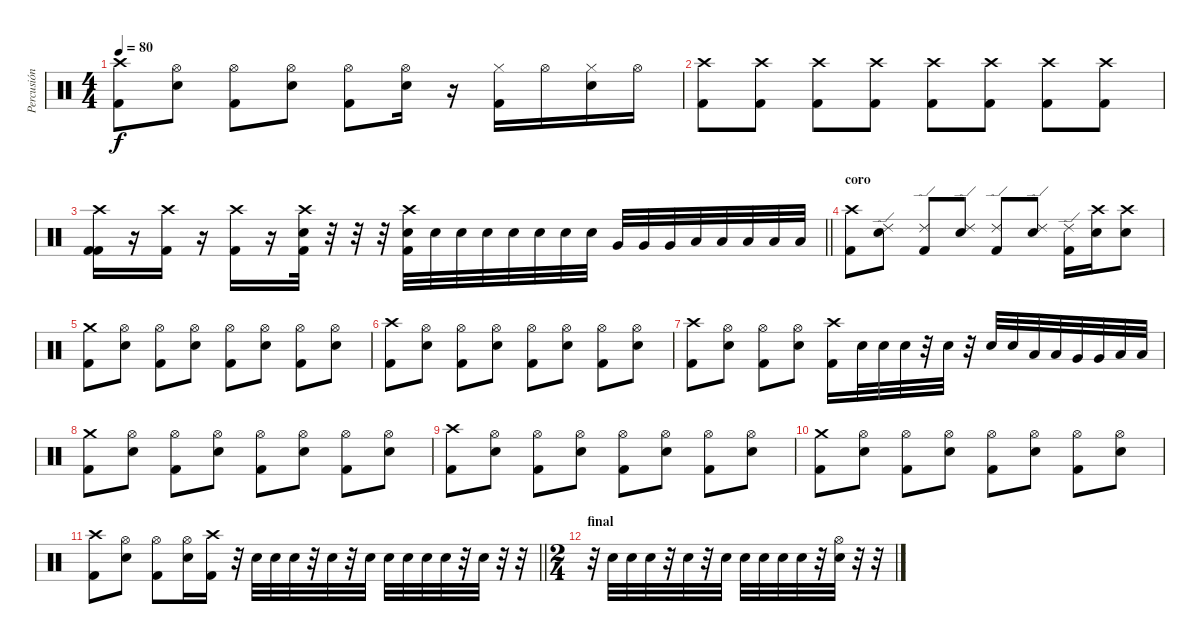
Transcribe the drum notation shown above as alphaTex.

\track ("Percusión" "Percusión") {instrument percussion}
\staff {score}
\articulation defaults
\ts (4 4)
\tempo 80
\clef neutral
\ks c
("Crash high (hit)" "Kick (hit) 2").8{dy f} ("Hi-Hat (open)" "Electric Snare (hit)").8 ("Hi-Hat (open)" "Kick (hit) 2").8 ("Hi-Hat (open)" "Electric Snare (hit)").8 ("Hi-Hat (open)" "Kick (hit) 2").8 ("Hi-Hat (open)" "Electric Snare (hit)").16 r.16 ("Hi-Hat (closed)" "Kick (hit) 2").16 "Hi-Hat (open)".16 ("Hi-Hat (closed)" "Electric Snare (hit)").16 "Hi-Hat (open)".16 |
("Crash high (hit)" "Kick (hit) 2").8 ("Crash high (hit)" "Kick (hit) 2").8 ("Crash high (hit)" "Kick (hit) 2").8 ("Crash high (hit)" "Kick (hit) 2").8 ("Crash high (hit)" "Kick (hit) 2").8 ("Crash high (hit)" "Kick (hit) 2").8 ("Crash high (hit)" "Kick (hit) 2").8 ("Crash high (hit)" "Kick (hit) 2").8 |
\barLineRight lightlight
("Crash high (hit)" "Kick (hit) 2" "Kick (hit) 2").16 r.16 ("Crash high (hit)" "Kick (hit) 2").16 r.16 ("Crash high (hit)" "Kick (hit) 2").16 r.16 ("Crash high (hit)" "Electric Snare (hit)" "Kick (hit) 2").32 r.32 r.32 r.32 ("Crash high (hit)" "Electric Snare (hit)" "Kick (hit) 2").32 "Electric Snare (hit)".32 "Electric Snare (hit)".32 "Electric Snare (hit)".32 "Electric Snare (hit)".32 "Electric Snare (hit)".32 "Electric Snare (hit)".32 "Electric Snare (hit)".32 "Very Low Tom (hit)".32 "Very Low Tom (hit)".32 "Very Low Tom (hit)".32 "Low Floor Tom (hit)".32 "Low Floor Tom (hit)".32 "Low Floor Tom (hit)".32 "Low Floor Tom (hit)".32 "Low Floor Tom (hit)".32 |
\section ("" "coro")
("Crash high (hit)" "Kick (hit) 2").8 ("Ride (edge) 2" "Electric Snare (hit)").8 ("Ride (edge) 2" "Kick (hit) 2").8 ("Ride (edge) 2" "Electric Snare (hit)").8 ("Ride (edge) 2" "Kick (hit) 2").8 ("Ride (edge) 2" "Electric Snare (hit)").8 ("Ride (edge) 2" "Kick (hit) 2").16 ("Crash high (hit)" "Electric Snare (hit)").16 ("Crash high (hit)" "Electric Snare (hit)").8 |
("Crash medium (hit)" "Kick (hit) 2").8 ("Hi-Hat (open)" "Electric Snare (hit)").8 ("Hi-Hat (open)" "Kick (hit) 2").8 ("Hi-Hat (open)" "Electric Snare (hit)").8 ("Hi-Hat (open)" "Kick (hit) 2").8 ("Hi-Hat (open)" "Electric Snare (hit)").8 ("Hi-Hat (open)" "Kick (hit) 2").8 ("Hi-Hat (open)" "Electric Snare (hit)").8 |
("Crash high (hit)" "Kick (hit) 2").8 ("Hi-Hat (open)" "Electric Snare (hit)").8 ("Hi-Hat (open)" "Kick (hit) 2").8 ("Hi-Hat (open)" "Electric Snare (hit)").8 ("Hi-Hat (open)" "Kick (hit) 2").8 ("Hi-Hat (open)" "Electric Snare (hit)").8 ("Hi-Hat (open)" "Kick (hit) 2").8 ("Hi-Hat (open)" "Electric Snare (hit)").8 |
("Crash high (hit)" "Kick (hit) 2").8 ("Hi-Hat (open)" "Electric Snare (hit)").8 ("Hi-Hat (open)" "Kick (hit) 2").8 ("Hi-Hat (open)" "Electric Snare (hit)").8 ("Crash high (hit)" "Kick (hit) 2").16 "Electric Snare (hit)".32 "Electric Snare (hit)".32 "Electric Snare (hit)".32 r.32 "Electric Snare (hit)".32 r.32 "Electric Snare (hit)".32 "Electric Snare (hit)".32 "Low Tom (hit)".32 "Low Tom (hit)".32 "Very Low Tom (hit)".32 "Very Low Tom (hit)".32 "Low Floor Tom (hit)".32 "Low Floor Tom (hit)".32 |
("Crash medium (hit)" "Kick (hit) 2").8 ("Hi-Hat (open)" "Electric Snare (hit)").8 ("Hi-Hat (open)" "Kick (hit) 2").8 ("Hi-Hat (open)" "Electric Snare (hit)").8 ("Hi-Hat (open)" "Kick (hit) 2").8 ("Hi-Hat (open)" "Electric Snare (hit)").8 ("Hi-Hat (open)" "Kick (hit) 2").8 ("Hi-Hat (open)" "Electric Snare (hit)").8 |
("Crash high (hit)" "Kick (hit) 2").8 ("Hi-Hat (open)" "Electric Snare (hit)").8 ("Hi-Hat (open)" "Kick (hit) 2").8 ("Hi-Hat (open)" "Electric Snare (hit)").8 ("Hi-Hat (open)" "Kick (hit) 2").8 ("Hi-Hat (open)" "Electric Snare (hit)").8 ("Hi-Hat (open)" "Kick (hit) 2").8 ("Hi-Hat (open)" "Electric Snare (hit)").8 |
("Crash medium (hit)" "Kick (hit) 2").8 ("Hi-Hat (open)" "Electric Snare (hit)").8 ("Hi-Hat (open)" "Kick (hit) 2").8 ("Hi-Hat (open)" "Electric Snare (hit)").8 ("Hi-Hat (open)" "Kick (hit) 2").8 ("Hi-Hat (open)" "Electric Snare (hit)").8 ("Hi-Hat (open)" "Kick (hit) 2").8 ("Hi-Hat (open)" "Electric Snare (hit)").8 |
\barLineRight lightlight
("Crash high (hit)" "Kick (hit) 2").8 ("Hi-Hat (open)" "Electric Snare (hit)").8 ("Hi-Hat (open)" "Kick (hit) 2").8 ("Hi-Hat (open)" "Electric Snare (hit)").16 ("Crash high (hit)" "Kick (hit) 2").16 r.32 "Electric Snare (hit)".32 "Electric Snare (hit)".32 "Electric Snare (hit)".32 r.32 "Electric Snare (hit)".32 r.32 "Electric Snare (hit)".32 "Electric Snare (hit)".32 "Electric Snare (hit)".32 "Electric Snare (hit)".32 "Electric Snare (hit)".32 r.32 "Electric Snare (hit)".32 r.32 r.32 |
\ts (2 4)
\section ("" "final")
r.32 "Electric Snare (hit)".32 "Electric Snare (hit)".32 "Electric Snare (hit)".32 r.32 "Electric Snare (hit)".32 r.32 "Electric Snare (hit)".32 "Electric Snare (hit)".32 "Electric Snare (hit)".32 "Electric Snare (hit)".32 "Electric Snare (hit)".32 r.32 ("Hi-Hat (open)" "Electric Snare (hit)").32 r.32 r.32
